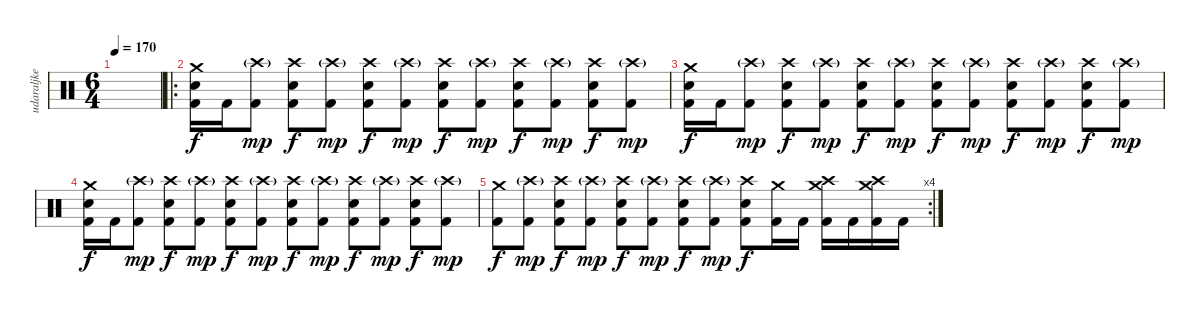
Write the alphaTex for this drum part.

\track ("udaraljke" "udaraljke") {instrument percussion}
\staff {score}
\articulation defaults
\ts (6 4)
\tempo 170
\clef neutral
\ks c
|
\ro
("Crash medium (hit)" "Snare (hit) 2" "Kick (hit) 2").16 "Kick (hit) 2".16 ("Crash high (hit)"{g} "Kick (hit) 2").8{dy mp} ("Crash high (hit)" "Snare (hit) 2" "Kick (hit) 2").8{dy f} ("Crash high (hit)"{g} "Kick (hit) 2").8{dy mp} ("Crash high (hit)" "Snare (hit) 2" "Kick (hit) 2").8{dy f} ("Crash high (hit)"{g} "Kick (hit) 2").8{dy mp} ("Crash high (hit)" "Snare (hit) 2" "Kick (hit) 2").8{dy f} ("Crash high (hit)"{g} "Kick (hit) 2").8{dy mp} ("Crash high (hit)" "Snare (hit) 2" "Kick (hit) 2").8{dy f} ("Crash high (hit)"{g} "Kick (hit) 2").8{dy mp} ("Crash high (hit)" "Snare (hit) 2" "Kick (hit) 2").8{dy f} ("Crash high (hit)"{g} "Kick (hit) 2").8{dy mp} |
("Crash medium (hit)" "Snare (hit) 2" "Kick (hit) 2").16{dy f} "Kick (hit) 2".16 ("Crash high (hit)"{g} "Kick (hit) 2").8{dy mp} ("Crash high (hit)" "Snare (hit) 2" "Kick (hit) 2").8{dy f} ("Crash high (hit)"{g} "Kick (hit) 2").8{dy mp} ("Crash high (hit)" "Snare (hit) 2" "Kick (hit) 2").8{dy f} ("Crash high (hit)"{g} "Kick (hit) 2").8{dy mp} ("Crash high (hit)" "Snare (hit) 2" "Kick (hit) 2").8{dy f} ("Crash high (hit)"{g} "Kick (hit) 2").8{dy mp} ("Crash high (hit)" "Snare (hit) 2" "Kick (hit) 2").8{dy f} ("Crash high (hit)"{g} "Kick (hit) 2").8{dy mp} ("Crash high (hit)" "Snare (hit) 2" "Kick (hit) 2").8{dy f} ("Crash high (hit)"{g} "Kick (hit) 2").8{dy mp} |
("Crash medium (hit)" "Snare (hit) 2" "Kick (hit) 2").16{dy f} "Kick (hit) 2".16 ("Crash high (hit)"{g} "Kick (hit) 2").8{dy mp} ("Crash high (hit)" "Snare (hit) 2" "Kick (hit) 2").8{dy f} ("Crash high (hit)"{g} "Kick (hit) 2").8{dy mp} ("Crash high (hit)" "Snare (hit) 2" "Kick (hit) 2").8{dy f} ("Crash high (hit)"{g} "Kick (hit) 2").8{dy mp} ("Crash high (hit)" "Snare (hit) 2" "Kick (hit) 2").8{dy f} ("Crash high (hit)"{g} "Kick (hit) 2").8{dy mp} ("Crash high (hit)" "Snare (hit) 2" "Kick (hit) 2").8{dy f} ("Crash high (hit)"{g} "Kick (hit) 2").8{dy mp} ("Crash high (hit)" "Snare (hit) 2" "Kick (hit) 2").8{dy f} ("Crash high (hit)"{g} "Kick (hit) 2").8{dy mp} |
\rc 4
("Crash medium (hit)" "Kick (hit) 2").8{dy f} ("Crash high (hit)"{g} "Kick (hit) 2").8{dy mp} ("Crash high (hit)" "Snare (hit) 2" "Kick (hit) 2").8{dy f} ("Crash high (hit)"{g} "Kick (hit) 2").8{dy mp} ("Crash high (hit)" "Snare (hit) 2" "Kick (hit) 2").8{dy f} ("Crash high (hit)"{g} "Kick (hit) 2").8{dy mp} ("Crash high (hit)" "Snare (hit) 2" "Kick (hit) 2").8{dy f} ("Crash high (hit)"{g} "Kick (hit) 2").8{dy mp} ("Crash high (hit)" "Snare (hit) 2" "Kick (hit) 2").8{dy f} ("Crash medium (hit)" "Kick (hit) 2").16 "Kick (hit) 2".16 ("Crash medium (hit)" "Crash high (hit)" "Kick (hit) 2").16 "Kick (hit) 2".16 ("Crash medium (hit)" "Crash high (hit)" "Kick (hit) 2").16 "Kick (hit) 2".16
